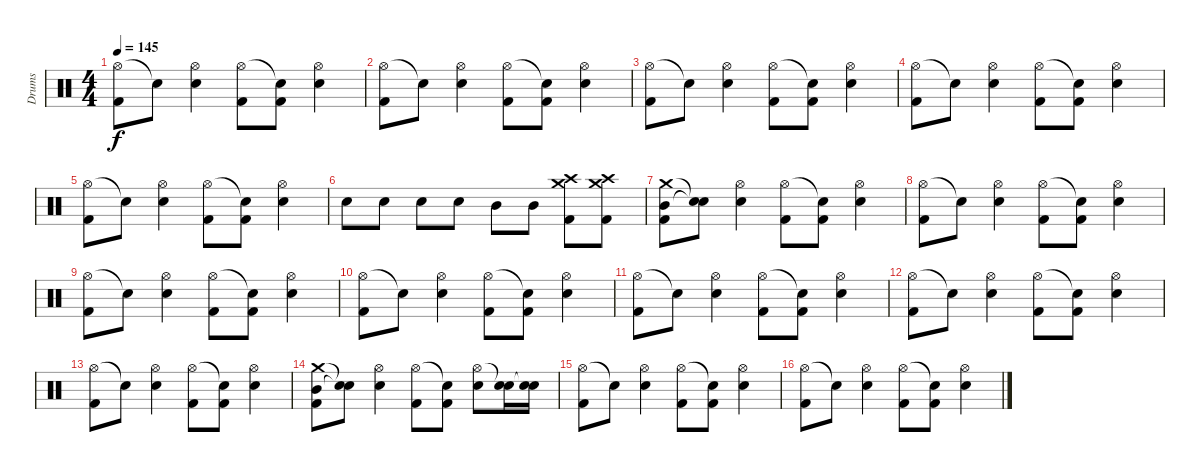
\track ("Drums" "Drums") {instrument percussion}
\staff {score}
\articulation defaults
\ts (4 4)
\tempo 145
\clef neutral
\ks c
("Hi-Hat (open)" "Kick (hit) 2").8{dy f} "Snare (hit)"{t}.8 ("Hi-Hat (open)" "Electric Snare (hit)").4 ("Hi-Hat (open)" "Kick (hit) 2").8 ("Snare (hit)"{t} "Kick (hit) 2").8 ("Hi-Hat (open)" "Electric Snare (hit)").4 |
("Hi-Hat (open)" "Kick (hit) 2").8 "Snare (hit)"{t}.8 ("Hi-Hat (open)" "Electric Snare (hit)").4 ("Hi-Hat (open)" "Kick (hit) 2").8 ("Snare (hit)"{t} "Kick (hit) 2").8 ("Hi-Hat (open)" "Electric Snare (hit)").4 |
("Hi-Hat (open)" "Kick (hit) 2").8 "Snare (hit)"{t}.8 ("Hi-Hat (open)" "Electric Snare (hit)").4 ("Hi-Hat (open)" "Kick (hit) 2").8 ("Snare (hit)"{t} "Kick (hit) 2").8 ("Hi-Hat (open)" "Electric Snare (hit)").4 |
("Hi-Hat (open)" "Kick (hit) 2").8 "Snare (hit)"{t}.8 ("Hi-Hat (open)" "Electric Snare (hit)").4 ("Hi-Hat (open)" "Kick (hit) 2").8 ("Snare (hit)"{t} "Kick (hit) 2").8 ("Hi-Hat (open)" "Electric Snare (hit)").4 |
("Hi-Hat (open)" "Kick (hit) 2").8 "Snare (hit)"{t}.8 ("Hi-Hat (open)" "Electric Snare (hit)").4 ("Hi-Hat (open)" "Kick (hit) 2").8 ("Snare (hit)"{t} "Kick (hit) 2").8 ("Hi-Hat (open)" "Electric Snare (hit)").4 |
"Electric Snare (hit)".8 "Electric Snare (hit)".8 "Electric Snare (hit)".8 "Electric Snare (hit)".8 "Mid Tom (hit)".8 "Mid Tom (hit)".8 ("Crash high (hit)" "Crash medium (hit)" "Kick (hit) 2").8 ("Crash high (hit)" "Crash medium (hit)" "Kick (hit) 2").8 |
("Mid Tom (hit)" "Crash medium (hit)" "Kick (hit) 2").8 ("Snare (hit)"{t} "Snare (hit)"{t}).8 ("Hi-Hat (open)" "Electric Snare (hit)").4 ("Hi-Hat (open)" "Kick (hit) 2").8 ("Snare (hit)"{t} "Kick (hit) 2").8 ("Hi-Hat (open)" "Electric Snare (hit)").4 |
("Hi-Hat (open)" "Kick (hit) 2").8 "Snare (hit)"{t}.8 ("Hi-Hat (open)" "Electric Snare (hit)").4 ("Hi-Hat (open)" "Kick (hit) 2").8 ("Snare (hit)"{t} "Kick (hit) 2").8 ("Hi-Hat (open)" "Electric Snare (hit)").4 |
("Hi-Hat (open)" "Kick (hit) 2").8 "Snare (hit)"{t}.8 ("Hi-Hat (open)" "Electric Snare (hit)").4 ("Hi-Hat (open)" "Kick (hit) 2").8 ("Snare (hit)"{t} "Kick (hit) 2").8 ("Hi-Hat (open)" "Electric Snare (hit)").4 |
("Hi-Hat (open)" "Kick (hit) 2").8 "Snare (hit)"{t}.8 ("Hi-Hat (open)" "Electric Snare (hit)").4 ("Hi-Hat (open)" "Kick (hit) 2").8 ("Snare (hit)"{t} "Kick (hit) 2").8 ("Hi-Hat (open)" "Electric Snare (hit)").4 |
("Hi-Hat (open)" "Kick (hit) 2").8 "Snare (hit)"{t}.8 ("Hi-Hat (open)" "Electric Snare (hit)").4 ("Hi-Hat (open)" "Kick (hit) 2").8 ("Snare (hit)"{t} "Kick (hit) 2").8 ("Hi-Hat (open)" "Electric Snare (hit)").4 |
("Hi-Hat (open)" "Kick (hit) 2").8 "Snare (hit)"{t}.8 ("Hi-Hat (open)" "Electric Snare (hit)").4 ("Hi-Hat (open)" "Kick (hit) 2").8 ("Snare (hit)"{t} "Kick (hit) 2").8 ("Hi-Hat (open)" "Electric Snare (hit)").4 |
("Hi-Hat (open)" "Kick (hit) 2").8 "Snare (hit)"{t}.8 ("Hi-Hat (open)" "Electric Snare (hit)").4 ("Hi-Hat (open)" "Kick (hit) 2").8 ("Snare (hit)"{t} "Kick (hit) 2").8 ("Hi-Hat (open)" "Electric Snare (hit)").4 |
("Mid Tom (hit)" "Crash medium (hit)" "Kick (hit) 2").8 ("Snare (hit)"{t} "Snare (hit)"{t}).8 ("Hi-Hat (open)" "Electric Snare (hit)").4 ("Hi-Hat (open)" "Kick (hit) 2").8 ("Snare (hit)"{t} "Kick (hit) 2").8 ("Hi-Hat (open)" "Electric Snare (hit)").8 ("Snare (hit)"{t} "Electric Snare (hit)").16 ("Snare (hit)"{t} "Electric Snare (hit)").16 |
("Hi-Hat (open)" "Kick (hit) 2").8 "Snare (hit)"{t}.8 ("Hi-Hat (open)" "Electric Snare (hit)").4 ("Hi-Hat (open)" "Kick (hit) 2").8 ("Snare (hit)"{t} "Kick (hit) 2").8 ("Hi-Hat (open)" "Electric Snare (hit)").4 |
("Hi-Hat (open)" "Kick (hit) 2").8 "Snare (hit)"{t}.8 ("Hi-Hat (open)" "Electric Snare (hit)").4 ("Hi-Hat (open)" "Kick (hit) 2").8 ("Snare (hit)"{t} "Kick (hit) 2").8 ("Hi-Hat (open)" "Electric Snare (hit)").4
